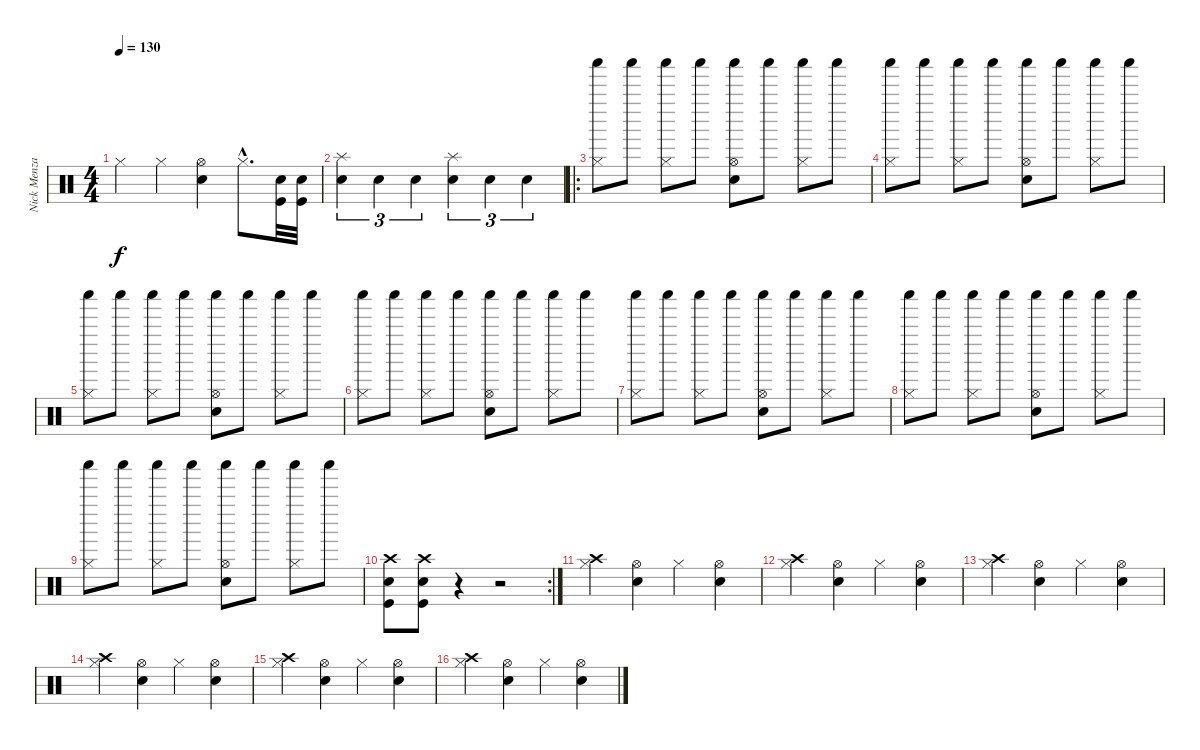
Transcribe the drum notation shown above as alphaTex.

\track ("Nick Menza" "Nick Menza") {instrument percussion}
\staff {score}
\articulation defaults
\ts (4 4)
\tempo 130
\clef neutral
\ks c "Hi-Hat (closed)".4{dy f} "Hi-Hat (closed)".4
("Snare (hit) 2" "Hi-Hat (open)").4 "Hi-Hat (closed)"{hac}.8{d} ("Snare (hit) 2" "Kick (hit)").32 ("Snare (hit) 2" "Kick (hit)").32 |
("Splash (hit)" "Snare (hit) 2").4{tu (3 2)} "Snare (hit) 2".4{tu (3 2)} "Snare (hit) 2".4{tu (3 2)} ("Splash (hit)" "Snare (hit) 2").4{tu (3 2)} "Snare (hit) 2".4{tu (3 2)} "Snare (hit) 2".4{tu (3 2)} |
\ro
("Shaker (hit)" "Hi-Hat (closed)").8 "Shaker (hit)".8 ("Shaker (hit)" "Hi-Hat (closed)").8 "Shaker (hit)".8 ("Shaker (hit)" "Hi-Hat (open)" "Snare (hit) 2").8 "Shaker (hit)".8 ("Shaker (hit)" "Hi-Hat (closed)").8 "Shaker (hit)".8 |
("Shaker (hit)" "Hi-Hat (closed)").8 "Shaker (hit)".8 ("Shaker (hit)" "Hi-Hat (closed)").8 "Shaker (hit)".8 ("Shaker (hit)" "Hi-Hat (open)" "Snare (hit) 2").8 "Shaker (hit)".8 ("Shaker (hit)" "Hi-Hat (closed)").8 "Shaker (hit)".8 |
("Shaker (hit)" "Hi-Hat (closed)").8 "Shaker (hit)".8 ("Shaker (hit)" "Hi-Hat (closed)").8 "Shaker (hit)".8 ("Shaker (hit)" "Hi-Hat (open)" "Snare (hit) 2").8 "Shaker (hit)".8 ("Shaker (hit)" "Hi-Hat (closed)").8 "Shaker (hit)".8 |
("Shaker (hit)" "Hi-Hat (closed)").8 "Shaker (hit)".8 ("Shaker (hit)" "Hi-Hat (closed)").8 "Shaker (hit)".8 ("Shaker (hit)" "Hi-Hat (open)" "Snare (hit) 2").8 "Shaker (hit)".8 ("Shaker (hit)" "Hi-Hat (closed)").8 "Shaker (hit)".8 |
("Shaker (hit)" "Hi-Hat (closed)").8 "Shaker (hit)".8 ("Shaker (hit)" "Hi-Hat (closed)").8 "Shaker (hit)".8 ("Shaker (hit)" "Hi-Hat (open)" "Snare (hit) 2").8 "Shaker (hit)".8 ("Shaker (hit)" "Hi-Hat (closed)").8 "Shaker (hit)".8 |
("Shaker (hit)" "Hi-Hat (closed)").8 "Shaker (hit)".8 ("Shaker (hit)" "Hi-Hat (closed)").8 "Shaker (hit)".8 ("Shaker (hit)" "Hi-Hat (open)" "Snare (hit) 2").8 "Shaker (hit)".8 ("Shaker (hit)" "Hi-Hat (closed)").8 "Shaker (hit)".8 |
("Shaker (hit)" "Hi-Hat (closed)").8 "Shaker (hit)".8 ("Shaker (hit)" "Hi-Hat (closed)").8 "Shaker (hit)".8 ("Shaker (hit)" "Hi-Hat (open)" "Snare (hit) 2").8 "Shaker (hit)".8 ("Shaker (hit)" "Hi-Hat (closed)").8 "Shaker (hit)".8 |
\rc 2
("Crash high (hit)" "Snare (hit) 2" "Kick (hit)").8 ("Crash high (hit)" "Snare (hit) 2" "Kick (hit)").8 r.4 r.2 |
("Crash high (hit)" "Hi-Hat (closed)").4 ("Snare (hit) 2" "Hi-Hat (open)").4 "Hi-Hat (closed)".4 ("Snare (hit) 2" "Hi-Hat (open)").4 |
("Crash high (hit)" "Hi-Hat (closed)").4 ("Snare (hit) 2" "Hi-Hat (open)").4 "Hi-Hat (closed)".4 ("Snare (hit) 2" "Hi-Hat (open)").4 |
("Crash high (hit)" "Hi-Hat (closed)").4 ("Snare (hit) 2" "Hi-Hat (open)").4 "Hi-Hat (closed)".4 ("Snare (hit) 2" "Hi-Hat (open)").4 |
("Crash high (hit)" "Hi-Hat (closed)").4 ("Snare (hit) 2" "Hi-Hat (open)").4 "Hi-Hat (closed)".4 ("Snare (hit) 2" "Hi-Hat (open)").4 |
("Crash high (hit)" "Hi-Hat (closed)").4 ("Snare (hit) 2" "Hi-Hat (open)").4 "Hi-Hat (closed)".4 ("Snare (hit) 2" "Hi-Hat (open)").4 |
("Crash high (hit)" "Hi-Hat (closed)").4 ("Snare (hit) 2" "Hi-Hat (open)").4 "Hi-Hat (closed)".4 ("Snare (hit) 2" "Hi-Hat (open)").4
